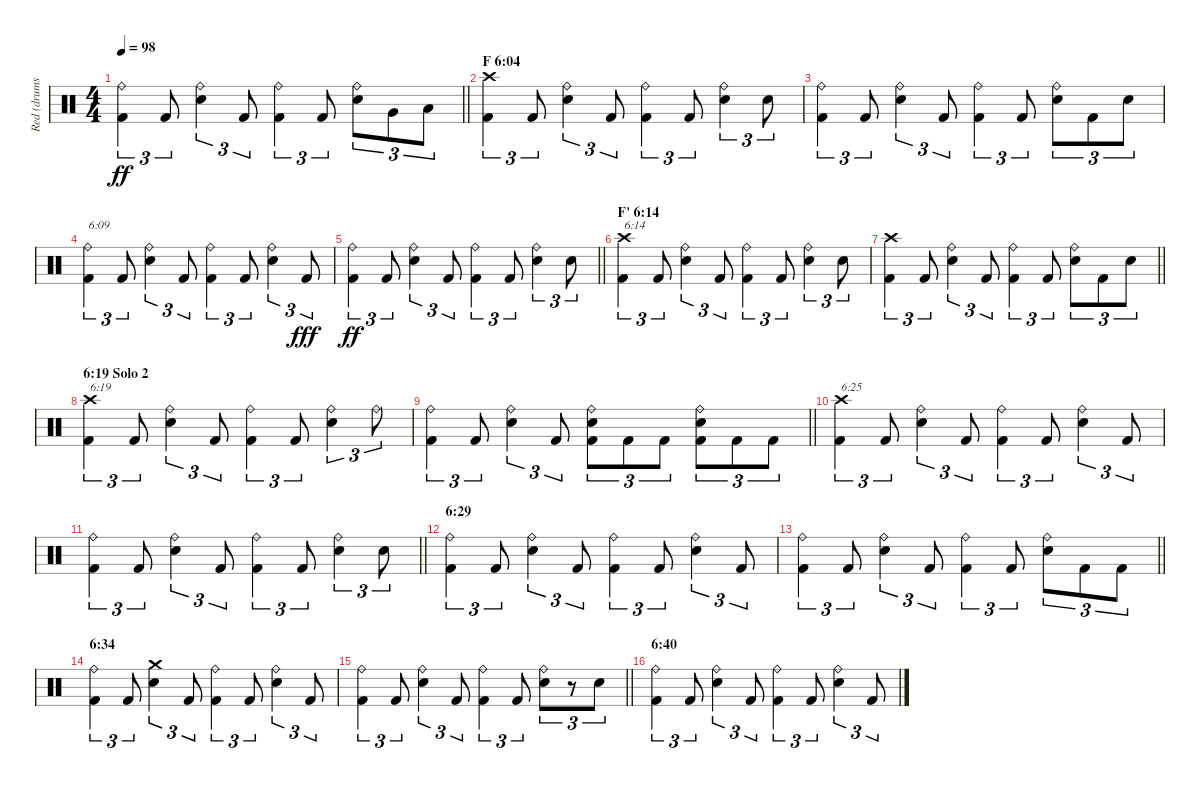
\track ("Red (drums)" "Red (drums") {instrument percussion}
\staff {score}
\articulation defaults
\ts (4 4)
\tempo 98
\clef neutral
\barLineRight lightlight
\ks c
("Ride (bell)" "Kick (hit) 2").4{tu (3 2) dy ff} "Kick (hit) 2".8{tu (3 2)} ("Ride (bell)" "Electric Snare (hit)").4{tu (3 2)} "Kick (hit) 2".8{tu (3 2)} ("Ride (bell)" "Kick (hit) 2").4{tu (3 2)} "Kick (hit) 2".8{tu (3 2)} ("Ride (bell)" "Electric Snare (hit)").8{tu (3 2)} "Very Low Tom (hit)".8{tu (3 2)} "Low Floor Tom (hit)".8{tu (3 2)} |
\section ("" "F 6:04")
("Crash high (hit)" "Kick (hit) 2").4{tu (3 2)} "Kick (hit) 2".8{tu (3 2)} ("Ride (bell)" "Electric Snare (hit)").4{tu (3 2)} "Kick (hit) 2".8{tu (3 2)} ("Ride (bell)" "Kick (hit) 2").4{tu (3 2)} "Kick (hit) 2".8{tu (3 2)} ("Ride (bell)" "Electric Snare (hit)").4{tu (3 2)} "Electric Snare (hit)".8{tu (3 2)} |
("Ride (bell)" "Kick (hit) 2").4{tu (3 2)} "Kick (hit) 2".8{tu (3 2)} ("Ride (bell)" "Electric Snare (hit)").4{tu (3 2)} "Kick (hit) 2".8{tu (3 2)} ("Ride (bell)" "Kick (hit) 2").4{tu (3 2)} "Kick (hit) 2".8{tu (3 2)} ("Ride (bell)" "Electric Snare (hit)").8{tu (3 2)} "Kick (hit) 2".8{tu (3 2)} "Electric Snare (hit)".8{tu (3 2)} |
("Ride (bell)" "Kick (hit) 2").4{tu (3 2) txt "6:09"} "Kick (hit) 2".8{tu (3 2)} ("Ride (bell)" "Electric Snare (hit)").4{tu (3 2)} "Kick (hit) 2".8{tu (3 2)} ("Ride (bell)" "Kick (hit) 2").4{tu (3 2)} "Kick (hit) 2".8{tu (3 2)} ("Ride (bell)" "Electric Snare (hit)").4{tu (3 2)} "Kick (hit) 2".8{tu (3 2) dy fff} |
\barLineRight lightlight
("Ride (bell)" "Kick (hit) 2").4{tu (3 2) dy ff} "Kick (hit) 2".8{tu (3 2)} ("Ride (bell)" "Electric Snare (hit)").4{tu (3 2)} "Kick (hit) 2".8{tu (3 2)} ("Ride (bell)" "Kick (hit) 2").4{tu (3 2)} "Kick (hit) 2".8{tu (3 2)} ("Ride (bell)" "Electric Snare (hit)").4{tu (3 2)} "Electric Snare (hit)".8{tu (3 2)} |
\section ("" "F' 6:14")
("Crash high (hit)" "Kick (hit) 2").4{tu (3 2) txt "6:14"} "Kick (hit) 2".8{tu (3 2)} ("Ride (bell)" "Electric Snare (hit)").4{tu (3 2)} "Kick (hit) 2".8{tu (3 2)} ("Ride (bell)" "Kick (hit) 2").4{tu (3 2)} "Kick (hit) 2".8{tu (3 2)} ("Ride (bell)" "Electric Snare (hit)").4{tu (3 2)} "Electric Snare (hit)".8{tu (3 2)} |
\barLineRight lightlight
("Crash high (hit)" "Kick (hit) 2").4{tu (3 2)} "Kick (hit) 2".8{tu (3 2)} ("Ride (bell)" "Electric Snare (hit)").4{tu (3 2)} "Kick (hit) 2".8{tu (3 2)} ("Ride (bell)" "Kick (hit) 2").4{tu (3 2)} "Kick (hit) 2".8{tu (3 2)} ("Ride (bell)" "Electric Snare (hit)").8{tu (3 2)} "Kick (hit) 2".8{tu (3 2)} "Electric Snare (hit)".8{tu (3 2)} |
\section ("" "6:19 Solo 2")
("Crash high (hit)" "Kick (hit) 2").4{tu (3 2) txt "6:19"} "Kick (hit) 2".8{tu (3 2)} ("Ride (bell)" "Electric Snare (hit)").4{tu (3 2)} "Kick (hit) 2".8{tu (3 2)} ("Ride (bell)" "Kick (hit) 2").4{tu (3 2)} "Kick (hit) 2".8{tu (3 2)} ("Ride (bell)" "Electric Snare (hit)").4{tu (3 2)} "Ride (bell)".8{tu (3 2)} |
\barLineRight lightlight
("Ride (bell)" "Kick (hit) 2").4{tu (3 2)} "Kick (hit) 2".8{tu (3 2)} ("Ride (bell)" "Electric Snare (hit)").4{tu (3 2)} "Kick (hit) 2".8{tu (3 2)} ("Ride (bell)" "Electric Snare (hit)" "Kick (hit) 2").8{tu (3 2)} "Kick (hit) 2".8{tu (3 2)} "Kick (hit) 2".8{tu (3 2)} ("Ride (bell)" "Electric Snare (hit)" "Kick (hit) 2").8{tu (3 2)} "Kick (hit) 2".8{tu (3 2)} "Kick (hit) 2".8{tu (3 2)} |
("Crash high (hit)" "Kick (hit) 2").4{tu (3 2) txt "6:25"} "Kick (hit) 2".8{tu (3 2)} ("Ride (bell)" "Electric Snare (hit)").4{tu (3 2)} "Kick (hit) 2".8{tu (3 2)} ("Ride (bell)" "Kick (hit) 2").4{tu (3 2)} "Kick (hit) 2".8{tu (3 2)} ("Ride (bell)" "Electric Snare (hit)").4{tu (3 2)} "Kick (hit) 2".8{tu (3 2)} |
\barLineRight lightlight
("Ride (bell)" "Kick (hit) 2").4{tu (3 2)} "Kick (hit) 2".8{tu (3 2)} ("Ride (bell)" "Electric Snare (hit)").4{tu (3 2)} "Kick (hit) 2".8{tu (3 2)} ("Ride (bell)" "Kick (hit) 2").4{tu (3 2)} "Kick (hit) 2".8{tu (3 2)} ("Ride (bell)" "Electric Snare (hit)").4{tu (3 2)} "Electric Snare (hit)".8{tu (3 2)} |
\section ("" "6:29")
("Ride (bell)" "Kick (hit) 2").4{tu (3 2)} "Kick (hit) 2".8{tu (3 2)} ("Ride (bell)" "Electric Snare (hit)").4{tu (3 2)} "Kick (hit) 2".8{tu (3 2)} ("Ride (bell)" "Kick (hit) 2").4{tu (3 2)} "Kick (hit) 2".8{tu (3 2)} ("Ride (bell)" "Electric Snare (hit)").4{tu (3 2)} "Kick (hit) 2".8{tu (3 2)} |
\barLineRight lightlight
("Ride (bell)" "Kick (hit) 2").4{tu (3 2)} "Kick (hit) 2".8{tu (3 2)} ("Ride (bell)" "Electric Snare (hit)").4{tu (3 2)} "Kick (hit) 2".8{tu (3 2)} ("Ride (bell)" "Kick (hit) 2").4{tu (3 2)} "Kick (hit) 2".8{tu (3 2)} ("Ride (bell)" "Electric Snare (hit)").8{tu (3 2)} "Kick (hit) 2".8{tu (3 2)} "Kick (hit) 2".8{tu (3 2)} |
\section ("" "6:34")
("Ride (bell)" "Kick (hit) 2").4{tu (3 2)} "Kick (hit) 2".8{tu (3 2)} ("Crash medium (hit)" "Electric Snare (hit)").4{tu (3 2)} "Kick (hit) 2".8{tu (3 2)} ("Ride (bell)" "Kick (hit) 2").4{tu (3 2)} "Kick (hit) 2".8{tu (3 2)} ("Ride (bell)" "Electric Snare (hit)").4{tu (3 2)} "Kick (hit) 2".8{tu (3 2)} |
\barLineRight lightlight
("Ride (bell)" "Kick (hit) 2").4{tu (3 2)} "Kick (hit) 2".8{tu (3 2)} ("Ride (bell)" "Electric Snare (hit)").4{tu (3 2)} "Kick (hit) 2".8{tu (3 2)} ("Ride (bell)" "Kick (hit) 2").4{tu (3 2)} "Kick (hit) 2".8{tu (3 2)} ("Ride (bell)" "Electric Snare (hit)").8{tu (3 2)} r.8{tu (3 2)} "Electric Snare (hit)".8{tu (3 2)} |
\section ("" "6:40")
("Ride (bell)" "Kick (hit) 2").4{tu (3 2)} "Kick (hit) 2".8{tu (3 2)} ("Ride (bell)" "Electric Snare (hit)").4{tu (3 2)} "Kick (hit) 2".8{tu (3 2)} ("Ride (bell)" "Kick (hit) 2").4{tu (3 2)} "Kick (hit) 2".8{tu (3 2)} ("Ride (bell)" "Electric Snare (hit)").4{tu (3 2)} "Kick (hit) 2".8{tu (3 2)}
